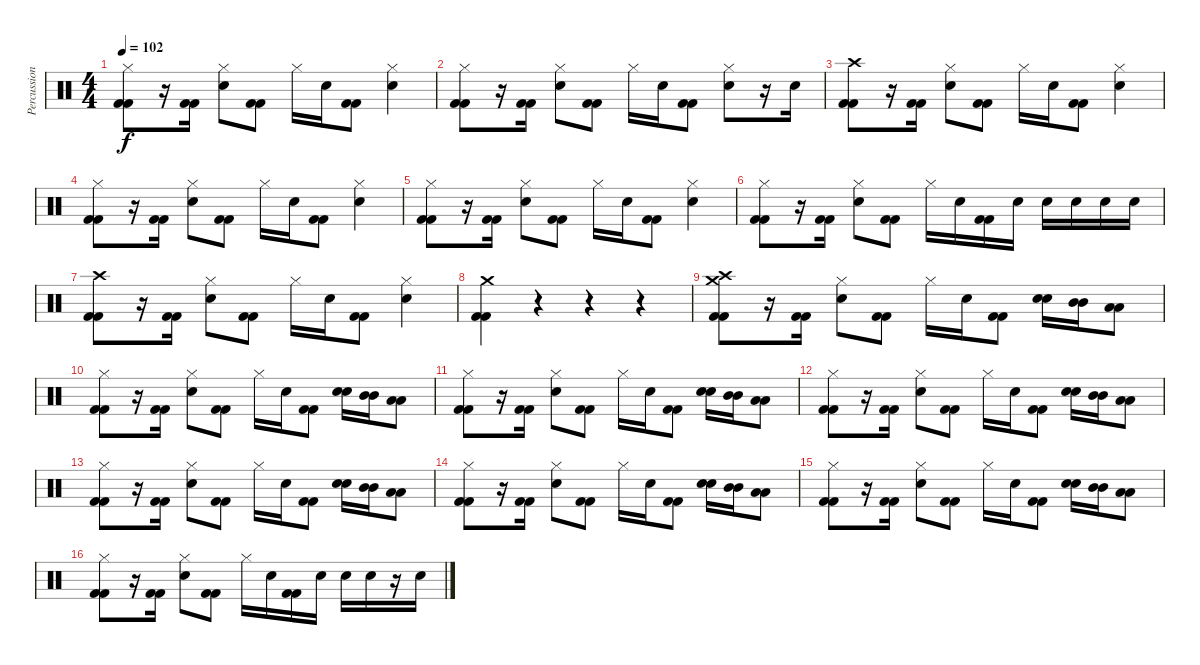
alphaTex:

\track ("Percussions" "Percussion") {instrument percussion}
\staff {score}
\articulation defaults
\ts (4 4)
\tempo 102
\clef neutral
\ks c
("Hi-Hat (closed)" "Kick (hit) 2" "Kick (hit) 2").8{dy f} r.16 ("Kick (hit) 2" "Kick (hit) 2").16 ("Hi-Hat (closed)" "Electric Snare (hit)").8 ("Kick (hit) 2" "Kick (hit) 2").8 "Hi-Hat (closed)".16 "Electric Snare (hit)".16 ("Kick (hit) 2" "Kick (hit) 2").8 ("Hi-Hat (closed)" "Electric Snare (hit)").4 |
("Hi-Hat (closed)" "Kick (hit) 2" "Kick (hit) 2").8 r.16 ("Kick (hit) 2" "Kick (hit) 2").16 ("Hi-Hat (closed)" "Electric Snare (hit)").8 ("Kick (hit) 2" "Kick (hit) 2").8 "Hi-Hat (closed)".16 "Electric Snare (hit)".16 ("Kick (hit) 2" "Kick (hit) 2").8 ("Hi-Hat (closed)" "Electric Snare (hit)").8 r.16 "Electric Snare (hit)".16 |
("Crash high (hit)" "Kick (hit) 2" "Kick (hit) 2").8 r.16 ("Kick (hit) 2" "Kick (hit) 2").16 ("Hi-Hat (closed)" "Electric Snare (hit)").8 ("Kick (hit) 2" "Kick (hit) 2").8 "Hi-Hat (closed)".16 "Electric Snare (hit)".16 ("Kick (hit) 2" "Kick (hit) 2").8 ("Hi-Hat (closed)" "Electric Snare (hit)").4 |
("Hi-Hat (closed)" "Kick (hit) 2" "Kick (hit) 2").8 r.16 ("Kick (hit) 2" "Kick (hit) 2").16 ("Hi-Hat (closed)" "Electric Snare (hit)").8 ("Kick (hit) 2" "Kick (hit) 2").8 "Hi-Hat (closed)".16 "Electric Snare (hit)".16 ("Kick (hit) 2" "Kick (hit) 2").8 ("Hi-Hat (closed)" "Electric Snare (hit)").4 |
("Hi-Hat (closed)" "Kick (hit) 2" "Kick (hit) 2").8 r.16 ("Kick (hit) 2" "Kick (hit) 2").16 ("Hi-Hat (closed)" "Electric Snare (hit)").8 ("Kick (hit) 2" "Kick (hit) 2").8 "Hi-Hat (closed)".16 "Electric Snare (hit)".16 ("Kick (hit) 2" "Kick (hit) 2").8 ("Hi-Hat (closed)" "Electric Snare (hit)").4 |
("Hi-Hat (closed)" "Kick (hit) 2" "Kick (hit) 2").8 r.16 ("Kick (hit) 2" "Kick (hit) 2").16 ("Hi-Hat (closed)" "Electric Snare (hit)").8 ("Kick (hit) 2" "Kick (hit) 2").8 "Hi-Hat (closed)".16 "Electric Snare (hit)".16 ("Kick (hit) 2" "Kick (hit) 2").16 "Electric Snare (hit)".16 "Electric Snare (hit)".16 "Electric Snare (hit)".16 "Electric Snare (hit)".16 "Electric Snare (hit)".16 |
("Crash high (hit)" "Kick (hit) 2" "Kick (hit) 2").8 r.16 ("Kick (hit) 2" "Kick (hit) 2").16 ("Hi-Hat (closed)" "Electric Snare (hit)").8 ("Kick (hit) 2" "Kick (hit) 2").8 "Hi-Hat (closed)".16 "Electric Snare (hit)".16 ("Kick (hit) 2" "Kick (hit) 2").8 ("Hi-Hat (closed)" "Electric Snare (hit)").4 |
("Crash medium (hit)" "Kick (hit) 2" "Kick (hit) 2").4 r.4 r.4 r.4 |
("Crash high (hit)" "Crash medium (hit)" "Kick (hit) 2" "Kick (hit) 2").8 r.16 ("Kick (hit) 2" "Kick (hit) 2").16 ("Hi-Hat (closed)" "Electric Snare (hit)").8 ("Kick (hit) 2" "Kick (hit) 2").8 "Hi-Hat (closed)".16 "Electric Snare (hit)".16 ("Kick (hit) 2" "Kick (hit) 2").8 ("Electric Snare (hit)" "Electric Snare (hit)").16 ("Mid Tom (hit)" "Mid Tom (hit)").16 ("Low Tom (hit)" "Low Tom (hit)").8 |
("Hi-Hat (closed)" "Kick (hit) 2" "Kick (hit) 2").8 r.16 ("Kick (hit) 2" "Kick (hit) 2").16 ("Hi-Hat (closed)" "Electric Snare (hit)").8 ("Kick (hit) 2" "Kick (hit) 2").8 "Hi-Hat (closed)".16 "Electric Snare (hit)".16 ("Kick (hit) 2" "Kick (hit) 2").8 ("Electric Snare (hit)" "Electric Snare (hit)").16 ("Mid Tom (hit)" "Mid Tom (hit)").16 ("Low Tom (hit)" "Low Tom (hit)").8 |
("Hi-Hat (closed)" "Kick (hit) 2" "Kick (hit) 2").8 r.16 ("Kick (hit) 2" "Kick (hit) 2").16 ("Hi-Hat (closed)" "Electric Snare (hit)").8 ("Kick (hit) 2" "Kick (hit) 2").8 "Hi-Hat (closed)".16 "Electric Snare (hit)".16 ("Kick (hit) 2" "Kick (hit) 2").8 ("Electric Snare (hit)" "Electric Snare (hit)").16 ("Mid Tom (hit)" "Mid Tom (hit)").16 ("Low Tom (hit)" "Low Tom (hit)").8 |
("Hi-Hat (closed)" "Kick (hit) 2" "Kick (hit) 2").8 r.16 ("Kick (hit) 2" "Kick (hit) 2").16 ("Hi-Hat (closed)" "Electric Snare (hit)").8 ("Kick (hit) 2" "Kick (hit) 2").8 "Hi-Hat (closed)".16 "Electric Snare (hit)".16 ("Kick (hit) 2" "Kick (hit) 2").8 ("Electric Snare (hit)" "Electric Snare (hit)").16 ("Mid Tom (hit)" "Mid Tom (hit)").16 ("Low Tom (hit)" "Low Tom (hit)").8 |
("Hi-Hat (closed)" "Kick (hit) 2" "Kick (hit) 2").8 r.16 ("Kick (hit) 2" "Kick (hit) 2").16 ("Hi-Hat (closed)" "Electric Snare (hit)").8 ("Kick (hit) 2" "Kick (hit) 2").8 "Hi-Hat (closed)".16 "Electric Snare (hit)".16 ("Kick (hit) 2" "Kick (hit) 2").8 ("Electric Snare (hit)" "Electric Snare (hit)").16 ("Mid Tom (hit)" "Mid Tom (hit)").16 ("Low Tom (hit)" "Low Tom (hit)").8 |
("Hi-Hat (closed)" "Kick (hit) 2" "Kick (hit) 2").8 r.16 ("Kick (hit) 2" "Kick (hit) 2").16 ("Hi-Hat (closed)" "Electric Snare (hit)").8 ("Kick (hit) 2" "Kick (hit) 2").8 "Hi-Hat (closed)".16 "Electric Snare (hit)".16 ("Kick (hit) 2" "Kick (hit) 2").8 ("Electric Snare (hit)" "Electric Snare (hit)").16 ("Mid Tom (hit)" "Mid Tom (hit)").16 ("Low Tom (hit)" "Low Tom (hit)").8 |
("Hi-Hat (closed)" "Kick (hit) 2" "Kick (hit) 2").8 r.16 ("Kick (hit) 2" "Kick (hit) 2").16 ("Hi-Hat (closed)" "Electric Snare (hit)").8 ("Kick (hit) 2" "Kick (hit) 2").8 "Hi-Hat (closed)".16 "Electric Snare (hit)".16 ("Kick (hit) 2" "Kick (hit) 2").8 ("Electric Snare (hit)" "Electric Snare (hit)").16 ("Mid Tom (hit)" "Mid Tom (hit)").16 ("Low Tom (hit)" "Low Tom (hit)").8 |
("Hi-Hat (closed)" "Kick (hit) 2" "Kick (hit) 2").8 r.16 ("Kick (hit) 2" "Kick (hit) 2").16 ("Hi-Hat (closed)" "Electric Snare (hit)").8 ("Kick (hit) 2" "Kick (hit) 2").8 "Hi-Hat (closed)".16 "Electric Snare (hit)".16 ("Kick (hit) 2" "Kick (hit) 2").16 "Electric Snare (hit)".16 "Electric Snare (hit)".16 "Electric Snare (hit)".16 r.16 "Electric Snare (hit)".16
